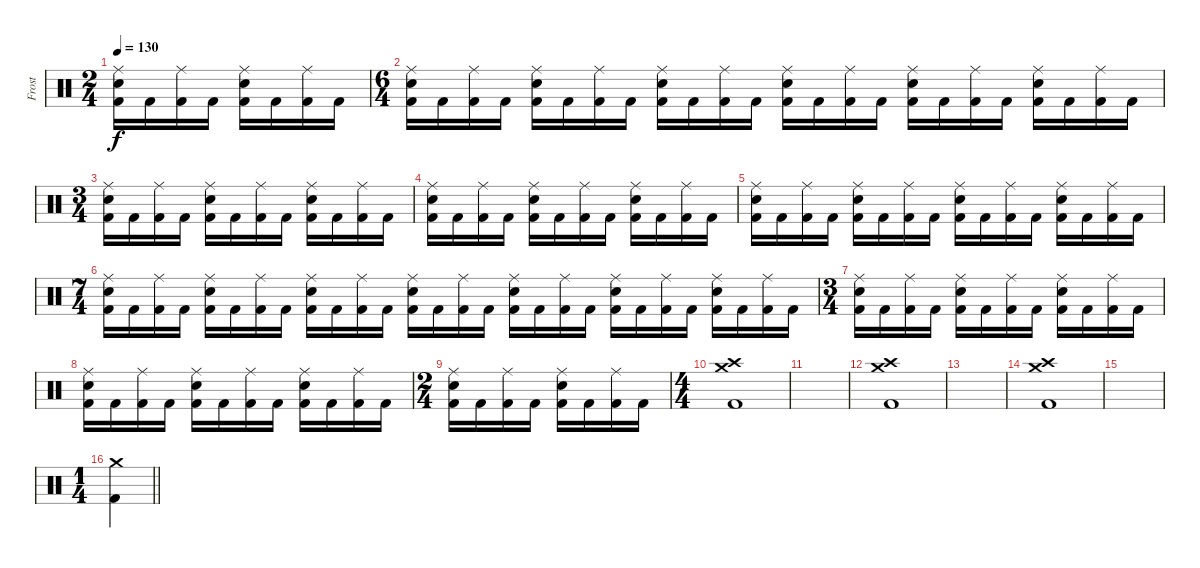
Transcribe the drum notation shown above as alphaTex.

\track ("Frost" "Frost") {instrument percussion}
\staff {score}
\articulation defaults
\ts (2 4)
\tempo 130
\clef neutral
\ks c
("Kick (hit) 2" "Ride (middle)" "Snare (hit) 2").16{dy f} "Kick (hit) 2".16 ("Kick (hit) 2" "Ride (middle)").16 "Kick (hit) 2".16 ("Kick (hit) 2" "Ride (middle)" "Snare (hit) 2").16 "Kick (hit) 2".16 ("Kick (hit) 2" "Ride (middle)").16 "Kick (hit) 2".16 |
\ts (6 4)
("Kick (hit) 2" "Ride (middle)" "Snare (hit) 2").16 "Kick (hit) 2".16 ("Kick (hit) 2" "Ride (middle)").16 "Kick (hit) 2".16 ("Kick (hit) 2" "Ride (middle)" "Snare (hit) 2").16 "Kick (hit) 2".16 ("Kick (hit) 2" "Ride (middle)").16 "Kick (hit) 2".16 ("Kick (hit) 2" "Ride (middle)" "Snare (hit) 2").16 "Kick (hit) 2".16 ("Kick (hit) 2" "Ride (middle)").16 "Kick (hit) 2".16 ("Kick (hit) 2" "Ride (middle)" "Snare (hit) 2").16 "Kick (hit) 2".16 ("Kick (hit) 2" "Ride (middle)").16 "Kick (hit) 2".16 ("Kick (hit) 2" "Ride (middle)" "Snare (hit) 2").16 "Kick (hit) 2".16 ("Kick (hit) 2" "Ride (middle)").16 "Kick (hit) 2".16 ("Kick (hit) 2" "Ride (middle)" "Snare (hit) 2").16 "Kick (hit) 2".16 ("Kick (hit) 2" "Ride (middle)").16 "Kick (hit) 2".16 |
\ts (3 4)
("Kick (hit) 2" "Ride (middle)" "Snare (hit) 2").16 "Kick (hit) 2".16 ("Kick (hit) 2" "Ride (middle)").16 "Kick (hit) 2".16 ("Kick (hit) 2" "Ride (middle)" "Snare (hit) 2").16 "Kick (hit) 2".16 ("Kick (hit) 2" "Ride (middle)").16 "Kick (hit) 2".16 ("Kick (hit) 2" "Ride (middle)" "Snare (hit) 2").16 "Kick (hit) 2".16 ("Kick (hit) 2" "Ride (middle)").16 "Kick (hit) 2".16 |
("Kick (hit) 2" "Ride (middle)" "Snare (hit) 2").16 "Kick (hit) 2".16 ("Kick (hit) 2" "Ride (middle)").16 "Kick (hit) 2".16 ("Kick (hit) 2" "Ride (middle)" "Snare (hit) 2").16 "Kick (hit) 2".16 ("Kick (hit) 2" "Ride (middle)").16 "Kick (hit) 2".16 ("Kick (hit) 2" "Ride (middle)" "Snare (hit) 2").16 "Kick (hit) 2".16 ("Kick (hit) 2" "Ride (middle)").16 "Kick (hit) 2".16 |
("Kick (hit) 2" "Ride (middle)" "Snare (hit) 2").16 "Kick (hit) 2".16 ("Kick (hit) 2" "Ride (middle)").16 "Kick (hit) 2".16 ("Kick (hit) 2" "Ride (middle)" "Snare (hit) 2").16 "Kick (hit) 2".16 ("Kick (hit) 2" "Ride (middle)").16 "Kick (hit) 2".16 ("Kick (hit) 2" "Ride (middle)" "Snare (hit) 2").16 "Kick (hit) 2".16 ("Kick (hit) 2" "Ride (middle)").16 "Kick (hit) 2".16 ("Kick (hit) 2" "Ride (middle)" "Snare (hit) 2").16 "Kick (hit) 2".16 ("Kick (hit) 2" "Ride (middle)").16 "Kick (hit) 2".16 |
\ts (7 4)
("Kick (hit) 2" "Ride (middle)" "Snare (hit) 2").16 "Kick (hit) 2".16 ("Kick (hit) 2" "Ride (middle)").16 "Kick (hit) 2".16 ("Kick (hit) 2" "Ride (middle)" "Snare (hit) 2").16 "Kick (hit) 2".16 ("Kick (hit) 2" "Ride (middle)").16 "Kick (hit) 2".16 ("Kick (hit) 2" "Ride (middle)" "Snare (hit) 2").16 "Kick (hit) 2".16 ("Kick (hit) 2" "Ride (middle)").16 "Kick (hit) 2".16 ("Kick (hit) 2" "Ride (middle)" "Snare (hit) 2").16 "Kick (hit) 2".16 ("Kick (hit) 2" "Ride (middle)").16 "Kick (hit) 2".16 ("Kick (hit) 2" "Ride (middle)" "Snare (hit) 2").16 "Kick (hit) 2".16 ("Kick (hit) 2" "Ride (middle)").16 "Kick (hit) 2".16 ("Kick (hit) 2" "Ride (middle)" "Snare (hit) 2").16 "Kick (hit) 2".16 ("Kick (hit) 2" "Ride (middle)").16 "Kick (hit) 2".16 ("Kick (hit) 2" "Ride (middle)" "Snare (hit) 2").16 "Kick (hit) 2".16 ("Kick (hit) 2" "Ride (middle)").16 "Kick (hit) 2".16 |
\ts (3 4)
("Kick (hit) 2" "Ride (middle)" "Snare (hit) 2").16 "Kick (hit) 2".16 ("Kick (hit) 2" "Ride (middle)").16 "Kick (hit) 2".16 ("Kick (hit) 2" "Ride (middle)" "Snare (hit) 2").16 "Kick (hit) 2".16 ("Kick (hit) 2" "Ride (middle)").16 "Kick (hit) 2".16 ("Kick (hit) 2" "Ride (middle)" "Snare (hit) 2").16 "Kick (hit) 2".16 ("Kick (hit) 2" "Ride (middle)").16 "Kick (hit) 2".16 |
("Kick (hit) 2" "Ride (middle)" "Snare (hit) 2").16 "Kick (hit) 2".16 ("Kick (hit) 2" "Ride (middle)").16 "Kick (hit) 2".16 ("Kick (hit) 2" "Ride (middle)" "Snare (hit) 2").16 "Kick (hit) 2".16 ("Kick (hit) 2" "Ride (middle)").16 "Kick (hit) 2".16 ("Kick (hit) 2" "Ride (middle)" "Snare (hit) 2").16 "Kick (hit) 2".16 ("Kick (hit) 2" "Ride (middle)").16 "Kick (hit) 2".16 |
\ts (2 4)
("Kick (hit) 2" "Ride (middle)" "Snare (hit) 2").16 "Kick (hit) 2".16 ("Kick (hit) 2" "Ride (middle)").16 "Kick (hit) 2".16 ("Kick (hit) 2" "Ride (middle)" "Snare (hit) 2").16 "Kick (hit) 2".16 ("Kick (hit) 2" "Ride (middle)").16 "Kick (hit) 2".16 |
\ts (4 4)
("Kick (hit) 2" "Crash medium (hit)" "Crash high (hit)").1 |
|
("Kick (hit) 2" "Crash medium (hit)" "Crash high (hit)").1 |
|
("Kick (hit) 2" "Crash medium (hit)" "Crash high (hit)").1 |
|
\ts (1 4)
\barLineRight lightlight
("Kick (hit) 2" "Crash medium (hit)").4
